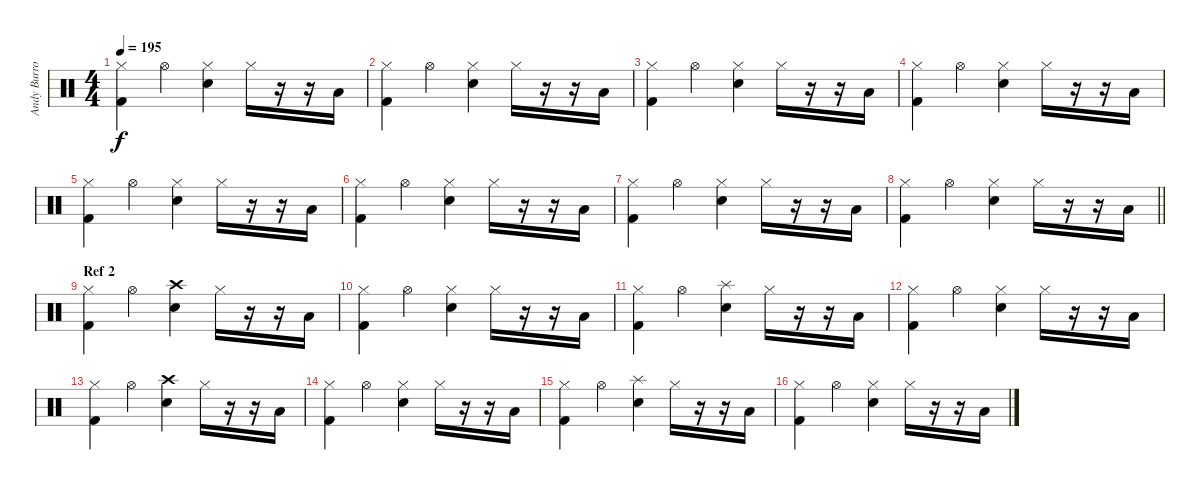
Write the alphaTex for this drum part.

\track ("Andy Burrows (drums)" "Andy Burro") {instrument percussion}
\staff {score}
\articulation defaults
\ts (4 4)
\tempo 195
\clef neutral
\ks c
("Hi-Hat (closed)" "Kick (hit) 2").4{dy f} "Hi-Hat (open)".4 ("Hi-Hat (closed)" "Electric Snare (hit)").4 "Hi-Hat (closed)".16 r.16 r.16 "Low Floor Tom (hit)".16 |
("Hi-Hat (closed)" "Kick (hit) 2").4 "Hi-Hat (open)".4 ("Hi-Hat (closed)" "Electric Snare (hit)").4 "Hi-Hat (closed)".16 r.16 r.16 "Low Floor Tom (hit)".16 |
("Hi-Hat (closed)" "Kick (hit) 2").4 "Hi-Hat (open)".4 ("Hi-Hat (closed)" "Electric Snare (hit)").4 "Hi-Hat (closed)".16 r.16 r.16 "Low Floor Tom (hit)".16 |
("Hi-Hat (closed)" "Kick (hit) 2").4 "Hi-Hat (open)".4 ("Hi-Hat (closed)" "Electric Snare (hit)").4 "Hi-Hat (closed)".16 r.16 r.16 "Low Floor Tom (hit)".16 |
("Hi-Hat (closed)" "Kick (hit) 2").4 "Hi-Hat (open)".4 ("Hi-Hat (closed)" "Electric Snare (hit)").4 "Hi-Hat (closed)".16 r.16 r.16 "Low Floor Tom (hit)".16 |
("Hi-Hat (closed)" "Kick (hit) 2").4 "Hi-Hat (open)".4 ("Hi-Hat (closed)" "Electric Snare (hit)").4 "Hi-Hat (closed)".16 r.16 r.16 "Low Floor Tom (hit)".16 |
("Hi-Hat (closed)" "Kick (hit) 2").4 "Hi-Hat (open)".4 ("Hi-Hat (closed)" "Electric Snare (hit)").4 "Hi-Hat (closed)".16 r.16 r.16 "Low Floor Tom (hit)".16 |
\barLineRight lightlight
("Hi-Hat (closed)" "Kick (hit) 2").4 "Hi-Hat (open)".4 ("Hi-Hat (closed)" "Electric Snare (hit)").4 "Hi-Hat (closed)".16 r.16 r.16 "Low Floor Tom (hit)".16 |
\section ("" "Ref 2")
("Hi-Hat (closed)" "Kick (hit) 2").4 "Hi-Hat (open)".4 ("Crash high (hit)" "Electric Snare (hit)").4 "Hi-Hat (closed)".16 r.16 r.16 "Low Floor Tom (hit)".16 |
("Hi-Hat (closed)" "Kick (hit) 2").4 "Hi-Hat (open)".4 ("Hi-Hat (closed)" "Electric Snare (hit)").4 "Hi-Hat (closed)".16 r.16 r.16 "Low Floor Tom (hit)".16 |
("Hi-Hat (closed)" "Kick (hit) 2").4 "Hi-Hat (open)".4 ("Splash (hit)" "Electric Snare (hit)").4 "Hi-Hat (closed)".16 r.16 r.16 "Low Floor Tom (hit)".16 |
("Hi-Hat (closed)" "Kick (hit) 2").4 "Hi-Hat (open)".4 ("Hi-Hat (closed)" "Electric Snare (hit)").4 "Hi-Hat (closed)".16 r.16 r.16 "Low Floor Tom (hit)".16 |
("Hi-Hat (closed)" "Kick (hit) 2").4 "Hi-Hat (open)".4 ("Crash high (hit)" "Electric Snare (hit)").4 "Hi-Hat (closed)".16 r.16 r.16 "Low Floor Tom (hit)".16 |
("Hi-Hat (closed)" "Kick (hit) 2").4 "Hi-Hat (open)".4 ("Hi-Hat (closed)" "Electric Snare (hit)").4 "Hi-Hat (closed)".16 r.16 r.16 "Low Floor Tom (hit)".16 |
("Hi-Hat (closed)" "Kick (hit) 2").4 "Hi-Hat (open)".4 ("Splash (hit)" "Electric Snare (hit)").4 "Hi-Hat (closed)".16 r.16 r.16 "Low Floor Tom (hit)".16 |
("Hi-Hat (closed)" "Kick (hit) 2").4 "Hi-Hat (open)".4 ("Hi-Hat (closed)" "Electric Snare (hit)").4 "Hi-Hat (closed)".16 r.16 r.16 "Low Floor Tom (hit)".16
